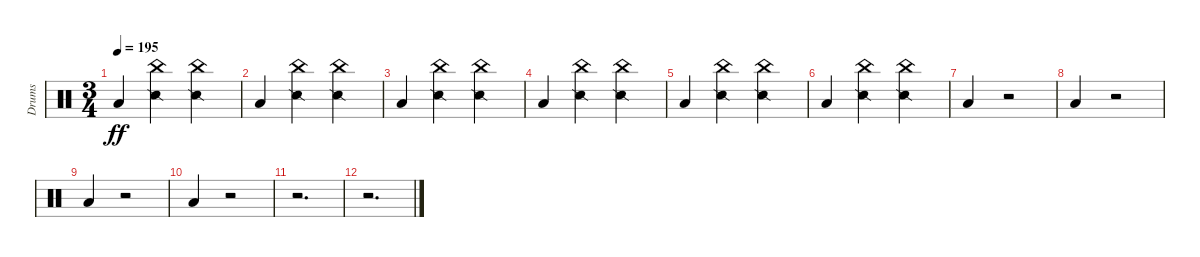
\track ("Drums" "Drums") {instrument percussion}
\staff {score}
\articulation defaults
\ts (3 4)
\tempo 195
\clef neutral
\ks c "Low Floor Tom (hit)".4{dy ff volume 3}
("China (hit)" "Snare (side stick) 2").4 ("China (hit)" "Snare (side stick) 2").4 |
"Low Floor Tom (hit)".4{volume 2} ("China (hit)" "Snare (side stick) 2").4 ("China (hit)" "Snare (side stick) 2").4 |
"Low Floor Tom (hit)".4{volume 2} ("China (hit)" "Snare (side stick) 2").4 ("China (hit)" "Snare (side stick) 2").4 |
"Low Floor Tom (hit)".4{volume 1} ("China (hit)" "Snare (side stick) 2").4 ("China (hit)" "Snare (side stick) 2").4 |
"Low Floor Tom (hit)".4{volume 1} ("China (hit)" "Snare (side stick) 2").4 ("China (hit)" "Snare (side stick) 2").4 |
"Low Floor Tom (hit)".4{volume 0} ("China (hit)" "Snare (side stick) 2").4 ("China (hit)" "Snare (side stick) 2").4 |
"Low Floor Tom (hit)".4 r.2 |
"Low Floor Tom (hit)".4{volume 1} r.2 |
"Low Floor Tom (hit)".4{volume 1} r.2 |
"Low Floor Tom (hit)".4{volume 0} r.2 |
r.2{d} |
r.2{d}
